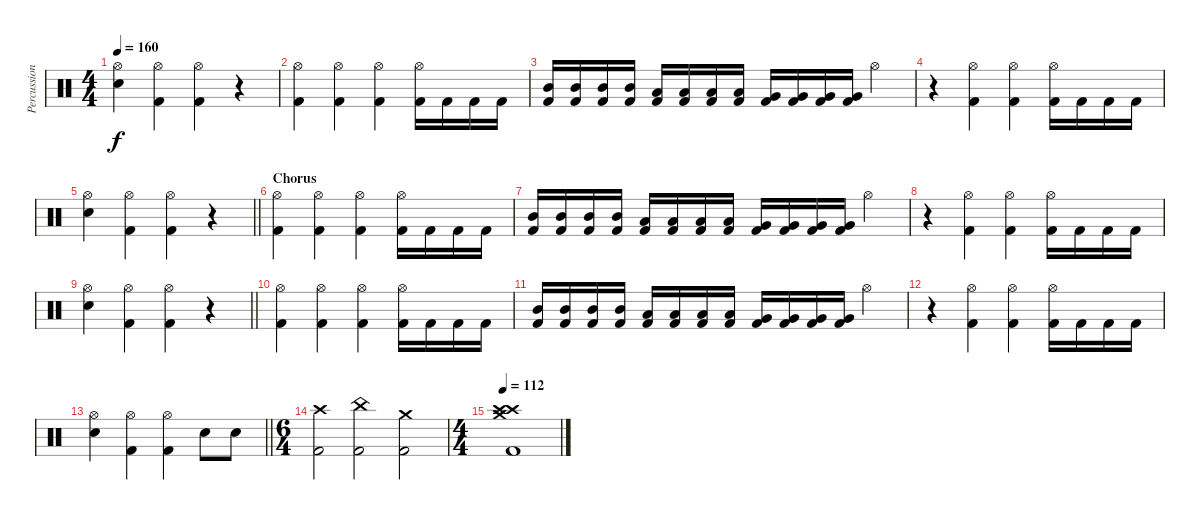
\track ("Percussion" "Percussion") {instrument percussion}
\staff {score}
\articulation defaults
\ts (4 4)
\tempo 160
\clef neutral
\ks c
("Hi-Hat (open)" "Snare (hit) 2").4{dy f} ("Hi-Hat (open)" "Kick (hit) 2").4 ("Hi-Hat (open)" "Kick (hit) 2").4 r.4 |
("Hi-Hat (open)" "Kick (hit) 2").4 ("Hi-Hat (open)" "Kick (hit) 2").4 ("Hi-Hat (open)" "Kick (hit) 2").4 ("Hi-Hat (open)" "Kick (hit) 2").16 "Kick (hit) 2".16 "Kick (hit) 2".16 "Kick (hit) 2".16 |
("Mid Tom (hit)" "Kick (hit) 2").16 ("Mid Tom (hit)" "Kick (hit) 2").16 ("Mid Tom (hit)" "Kick (hit) 2").16 ("Mid Tom (hit)" "Kick (hit) 2").16 ("Low Tom (hit)" "Kick (hit) 2").16 ("Low Tom (hit)" "Kick (hit) 2").16 ("Low Tom (hit)" "Kick (hit) 2").16 ("Low Tom (hit)" "Kick (hit) 2").16 ("Very Low Tom (hit)" "Kick (hit) 2").16 ("Very Low Tom (hit)" "Kick (hit) 2").16 ("Very Low Tom (hit)" "Kick (hit) 2").16 ("Very Low Tom (hit)" "Kick (hit) 2").16 "Hi-Hat (open)".4 |
r.4 ("Hi-Hat (open)" "Kick (hit) 2").4 ("Hi-Hat (open)" "Kick (hit) 2").4 ("Hi-Hat (open)" "Kick (hit) 2").16 "Kick (hit) 2".16 "Kick (hit) 2".16 "Kick (hit) 2".16 |
\barLineRight lightlight
("Hi-Hat (open)" "Snare (hit) 2").4 ("Hi-Hat (open)" "Kick (hit) 2").4 ("Hi-Hat (open)" "Kick (hit) 2").4 r.4 |
\section ("" "Chorus")
("Hi-Hat (open)" "Kick (hit) 2").4 ("Hi-Hat (open)" "Kick (hit) 2").4 ("Hi-Hat (open)" "Kick (hit) 2").4 ("Hi-Hat (open)" "Kick (hit) 2").16 "Kick (hit) 2".16 "Kick (hit) 2".16 "Kick (hit) 2".16 |
("Mid Tom (hit)" "Kick (hit) 2").16 ("Mid Tom (hit)" "Kick (hit) 2").16 ("Mid Tom (hit)" "Kick (hit) 2").16 ("Mid Tom (hit)" "Kick (hit) 2").16 ("Low Tom (hit)" "Kick (hit) 2").16 ("Low Tom (hit)" "Kick (hit) 2").16 ("Low Tom (hit)" "Kick (hit) 2").16 ("Low Tom (hit)" "Kick (hit) 2").16 ("Very Low Tom (hit)" "Kick (hit) 2").16 ("Very Low Tom (hit)" "Kick (hit) 2").16 ("Very Low Tom (hit)" "Kick (hit) 2").16 ("Very Low Tom (hit)" "Kick (hit) 2").16 "Hi-Hat (open)".4 |
r.4 ("Hi-Hat (open)" "Kick (hit) 2").4 ("Hi-Hat (open)" "Kick (hit) 2").4 ("Hi-Hat (open)" "Kick (hit) 2").16 "Kick (hit) 2".16 "Kick (hit) 2".16 "Kick (hit) 2".16 |
\barLineRight lightlight
("Hi-Hat (open)" "Snare (hit) 2").4 ("Hi-Hat (open)" "Kick (hit) 2").4 ("Hi-Hat (open)" "Kick (hit) 2").4 r.4 |
("Hi-Hat (open)" "Kick (hit) 2").4 ("Hi-Hat (open)" "Kick (hit) 2").4 ("Hi-Hat (open)" "Kick (hit) 2").4 ("Hi-Hat (open)" "Kick (hit) 2").16 "Kick (hit) 2".16 "Kick (hit) 2".16 "Kick (hit) 2".16 |
("Mid Tom (hit)" "Kick (hit) 2").16 ("Mid Tom (hit)" "Kick (hit) 2").16 ("Mid Tom (hit)" "Kick (hit) 2").16 ("Mid Tom (hit)" "Kick (hit) 2").16 ("Low Tom (hit)" "Kick (hit) 2").16 ("Low Tom (hit)" "Kick (hit) 2").16 ("Low Tom (hit)" "Kick (hit) 2").16 ("Low Tom (hit)" "Kick (hit) 2").16 ("Very Low Tom (hit)" "Kick (hit) 2").16 ("Very Low Tom (hit)" "Kick (hit) 2").16 ("Very Low Tom (hit)" "Kick (hit) 2").16 ("Very Low Tom (hit)" "Kick (hit) 2").16 "Hi-Hat (open)".4 |
r.4 ("Hi-Hat (open)" "Kick (hit) 2").4 ("Hi-Hat (open)" "Kick (hit) 2").4 ("Hi-Hat (open)" "Kick (hit) 2").16 "Kick (hit) 2".16 "Kick (hit) 2".16 "Kick (hit) 2".16 |
\barLineRight lightlight
("Hi-Hat (open)" "Snare (hit) 2").4 ("Hi-Hat (open)" "Kick (hit) 2").4 ("Hi-Hat (open)" "Kick (hit) 2").4 "Snare (hit) 2".8 "Snare (hit) 2".8 |
\ts (6 4)
("Crash high (hit)" "Kick (hit) 2").2 ("China (hit)" "Kick (hit) 2").2 ("Crash medium (hit)" "Kick (hit) 2").2 |
\ts (4 4)
\tempo 112
("Crash high (hit)" "Crash high (hit)" "Crash medium (hit)" "Kick (hit) 2").1
